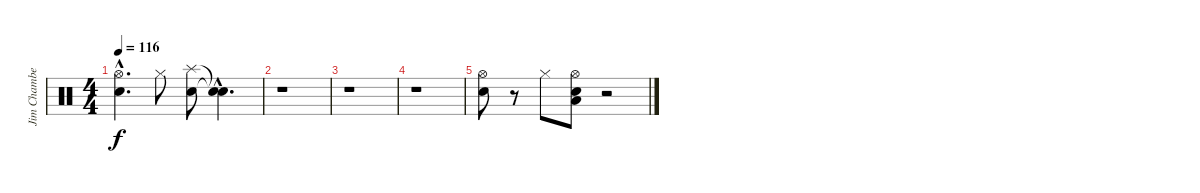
\track ("Jim Chamberlin" "Jim Chambe") {instrument percussion}
\staff {score}
\articulation defaults
\ts (4 4)
\tempo 116
\clef neutral
\ks c
("Snare (hit) 2"{hac} "Hi-Hat (open)"{hac}).4{d dy f} "Hi-Hat (closed)".8 ("Splash (hit)" "Snare (hit) 2").8 ("Snare (hit)"{hac t} "Snare (hit)"{hac t}).4{d} |
r.1 |
r.1 |
r.1 |
("Snare (hit) 2" "Hi-Hat (open)").8 r.8 "Hi-Hat (closed)".8 ("Low Floor Tom (hit)" "Snare (hit) 2" "Hi-Hat (open)").8 r.2
